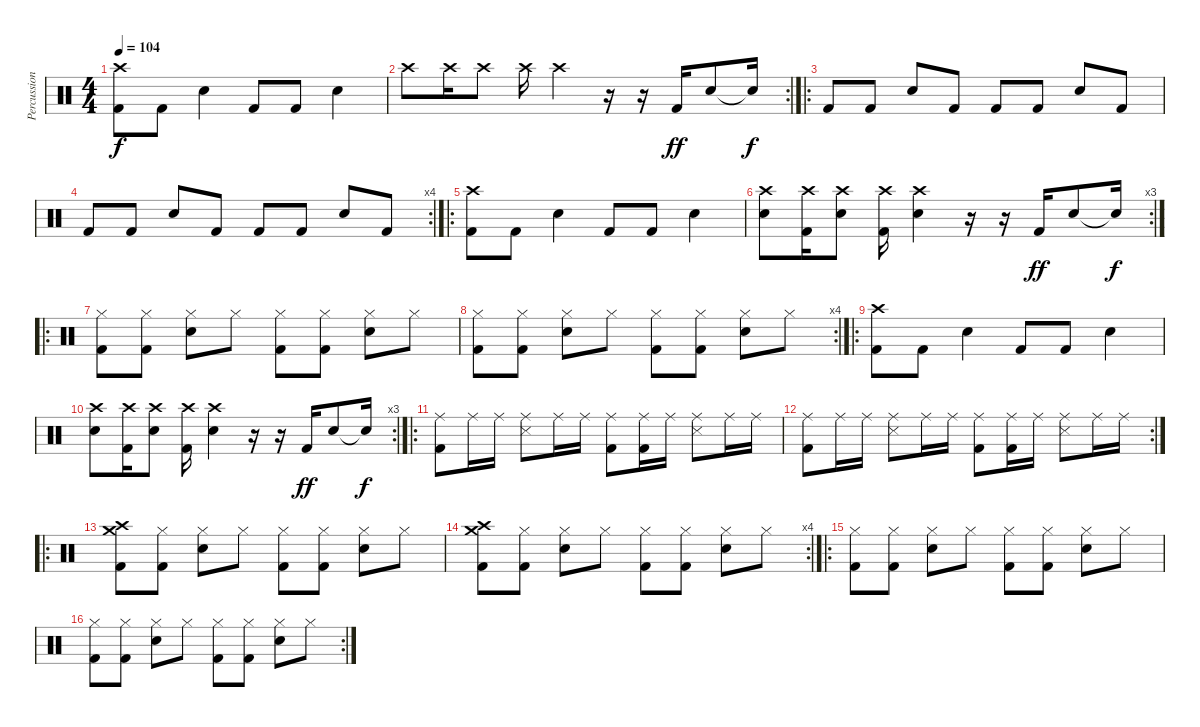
\track ("Percussion" "Percussion") {instrument percussion}
\staff {score}
\articulation defaults
\ts (4 4)
\tempo 104
\clef neutral
\ks c
("Crash high (hit)" "Kick (hit) 2").8{dy f} "Kick (hit) 2".8 "Electric Snare (hit)".4 "Kick (hit) 2".8 "Kick (hit) 2".8 "Electric Snare (hit)".4 |
\rc 2 "Crash high (hit)".8 "Crash high (hit)".16 "Crash high (hit)".8 "Crash high (hit)".16 "Crash high (hit)".4
r.16 r.16 "Kick (hit) 2".16{dy ff} "Electric Snare (hit)".8 "Snare (hit)"{t}.16{dy f} |
\ro "Kick (hit) 2".8 "Kick (hit) 2".8 "Electric Snare (hit)".8 "Kick (hit) 2".8 "Kick (hit) 2".8 "Kick (hit) 2".8 "Electric Snare (hit)".8 "Kick (hit) 2".8
|
\rc 4 "Kick (hit) 2".8 "Kick (hit) 2".8 "Electric Snare (hit)".8 "Kick (hit) 2".8 "Kick (hit) 2".8 "Kick (hit) 2".8 "Electric Snare (hit)".8 "Kick (hit) 2".8
|
\ro
("Crash high (hit)" "Kick (hit) 2").8 "Kick (hit) 2".8 "Electric Snare (hit)".4 "Kick (hit) 2".8 "Kick (hit) 2".8 "Electric Snare (hit)".4 |
\rc 3
("Crash high (hit)" "Electric Snare (hit)").8 ("Crash high (hit)" "Kick (hit) 2").16 ("Crash high (hit)" "Electric Snare (hit)").8 ("Crash high (hit)" "Kick (hit) 2").16 ("Crash high (hit)" "Electric Snare (hit)").4 r.16 r.16 "Kick (hit) 2".16{dy ff} "Electric Snare (hit)".8 "Snare (hit)"{t}.16{dy f} |
\ro
("Hi-Hat (closed)" "Kick (hit) 2").8 ("Hi-Hat (closed)" "Kick (hit) 2").8 ("Hi-Hat (closed)" "Electric Snare (hit)").8 "Hi-Hat (closed)".8 ("Hi-Hat (closed)" "Kick (hit) 2").8 ("Hi-Hat (closed)" "Kick (hit) 2").8 ("Hi-Hat (closed)" "Electric Snare (hit)").8 "Hi-Hat (closed)".8 |
\rc 4
("Hi-Hat (closed)" "Kick (hit) 2").8 ("Hi-Hat (closed)" "Kick (hit) 2").8 ("Hi-Hat (closed)" "Electric Snare (hit)").8 "Hi-Hat (closed)".8 ("Hi-Hat (closed)" "Kick (hit) 2").8 ("Hi-Hat (closed)" "Kick (hit) 2").8 ("Hi-Hat (closed)" "Electric Snare (hit)").8 "Hi-Hat (closed)".8 |
\ro
("Crash high (hit)" "Kick (hit) 2").8 "Kick (hit) 2".8 "Electric Snare (hit)".4 "Kick (hit) 2".8 "Kick (hit) 2".8 "Electric Snare (hit)".4 |
\rc 3
("Crash high (hit)" "Electric Snare (hit)").8 ("Crash high (hit)" "Kick (hit) 2").16 ("Crash high (hit)" "Electric Snare (hit)").8 ("Crash high (hit)" "Kick (hit) 2").16 ("Crash high (hit)" "Electric Snare (hit)").4 r.16 r.16 "Kick (hit) 2".16{dy ff} "Electric Snare (hit)".8 "Snare (hit)"{t}.16{dy f} |
\ro
("Ride (middle)" "Kick (hit) 2").8 "Ride (middle)".16 "Ride (middle)".16 ("Ride (middle)" "Snare (side stick) 3").8 "Ride (middle)".16 "Ride (middle)".16 ("Ride (middle)" "Kick (hit) 2").8 ("Ride (middle)" "Kick (hit) 2").16 "Ride (middle)".16 ("Ride (middle)" "Snare (side stick) 3").8 "Ride (middle)".16 "Ride (middle)".16 |
\rc 2
("Ride (middle)" "Kick (hit) 2").8 "Ride (middle)".16 "Ride (middle)".16 ("Ride (middle)" "Snare (side stick) 3").8 "Ride (middle)".16 "Ride (middle)".16 ("Ride (middle)" "Kick (hit) 2").8 ("Ride (middle)" "Kick (hit) 2").16 "Ride (middle)".16 ("Ride (middle)" "Snare (side stick) 3").8 "Ride (middle)".16 "Ride (middle)".16 |
\ro
("Crash high (hit)" "Crash medium (hit)" "Kick (hit) 2").8 ("Hi-Hat (closed)" "Kick (hit) 2").8 ("Hi-Hat (closed)" "Electric Snare (hit)").8 "Hi-Hat (closed)".8 ("Hi-Hat (closed)" "Kick (hit) 2").8 ("Hi-Hat (closed)" "Kick (hit) 2").8 ("Hi-Hat (closed)" "Electric Snare (hit)").8 "Hi-Hat (closed)".8 |
\rc 4
("Crash high (hit)" "Crash medium (hit)" "Kick (hit) 2").8 ("Hi-Hat (closed)" "Kick (hit) 2").8 ("Hi-Hat (closed)" "Electric Snare (hit)").8 "Hi-Hat (closed)".8 ("Hi-Hat (closed)" "Kick (hit) 2").8 ("Hi-Hat (closed)" "Kick (hit) 2").8 ("Hi-Hat (closed)" "Electric Snare (hit)").8 "Hi-Hat (closed)".8 |
\ro
("Hi-Hat (closed)" "Kick (hit) 2").8 ("Hi-Hat (closed)" "Kick (hit) 2").8 ("Hi-Hat (closed)" "Electric Snare (hit)").8 "Hi-Hat (closed)".8 ("Hi-Hat (closed)" "Kick (hit) 2").8 ("Hi-Hat (closed)" "Kick (hit) 2").8 ("Hi-Hat (closed)" "Electric Snare (hit)").8 "Hi-Hat (closed)".8 |
\rc 2
("Hi-Hat (closed)" "Kick (hit) 2").8 ("Hi-Hat (closed)" "Kick (hit) 2").8 ("Hi-Hat (closed)" "Electric Snare (hit)").8 "Hi-Hat (closed)".8 ("Hi-Hat (closed)" "Kick (hit) 2").8 ("Hi-Hat (closed)" "Kick (hit) 2").8 ("Hi-Hat (closed)" "Electric Snare (hit)").8 "Hi-Hat (closed)".8
